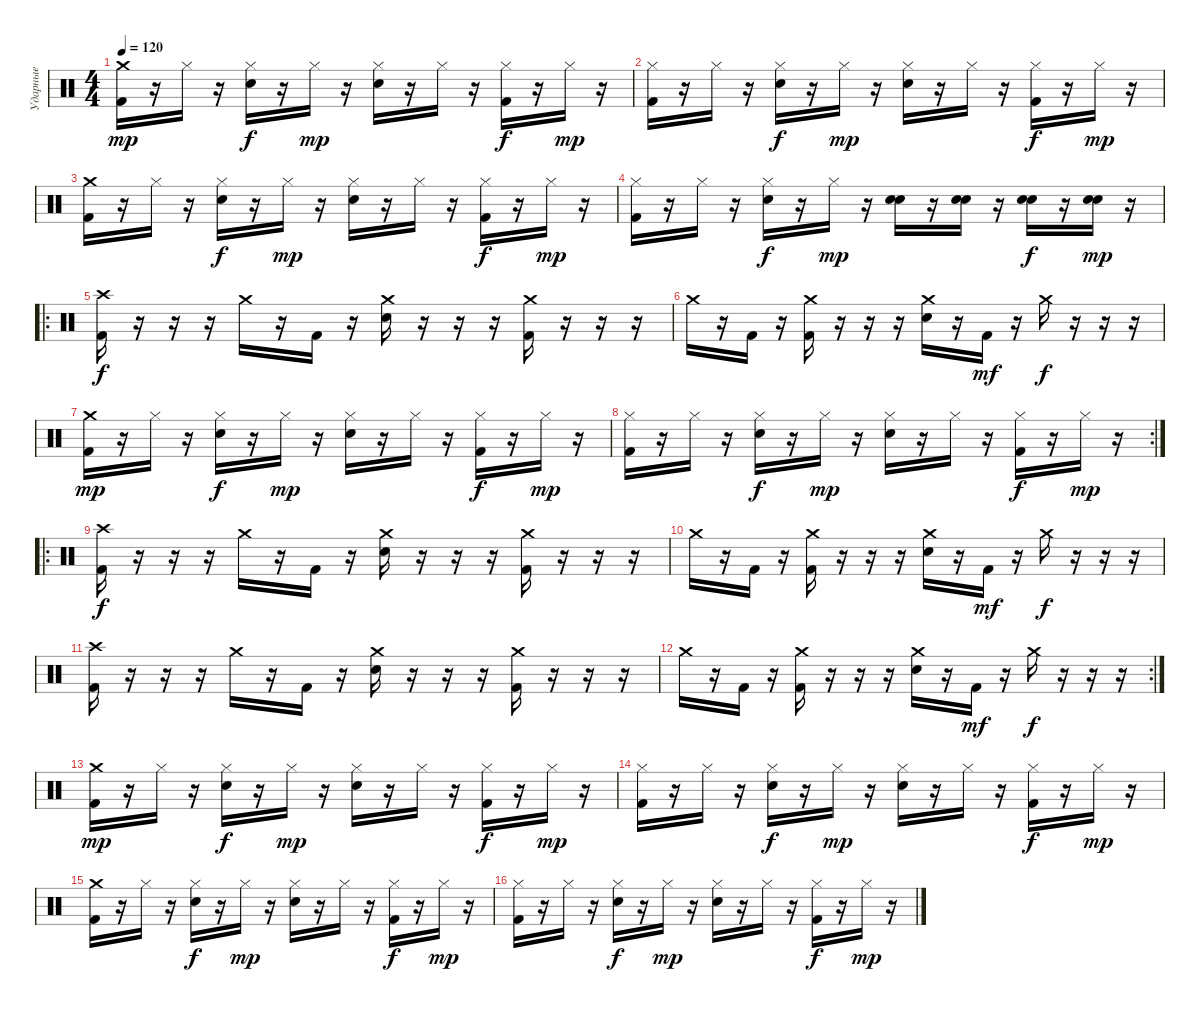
\track ("Ударные" "Ударные") {instrument percussion}
\staff {score}
\articulation defaults
\ts (4 4)
\tempo 120
\clef neutral
\ks c
("Crash medium (hit)" "Kick (hit) 2").16{dy mp} r.16 "Hi-Hat (closed)".16 r.16 ("Hi-Hat (closed)" "Electric Snare (hit)").16{dy f} r.16 "Hi-Hat (closed)".16{dy mp} r.16 ("Hi-Hat (closed)" "Electric Snare (hit)").16 r.16 "Hi-Hat (closed)".16 r.16 ("Hi-Hat (closed)" "Kick (hit) 2").16{dy f} r.16 "Hi-Hat (closed)".16{dy mp} r.16 |
("Hi-Hat (closed)" "Kick (hit) 2").16 r.16 "Hi-Hat (closed)".16 r.16 ("Hi-Hat (closed)" "Electric Snare (hit)").16{dy f} r.16 "Hi-Hat (closed)".16{dy mp} r.16 ("Hi-Hat (closed)" "Electric Snare (hit)").16 r.16 "Hi-Hat (closed)".16 r.16 ("Hi-Hat (closed)" "Kick (hit) 2").16{dy f} r.16 "Hi-Hat (closed)".16{dy mp} r.16 |
("Crash medium (hit)" "Kick (hit) 2").16 r.16 "Hi-Hat (closed)".16 r.16 ("Hi-Hat (closed)" "Electric Snare (hit)").16{dy f} r.16 "Hi-Hat (closed)".16{dy mp} r.16 ("Hi-Hat (closed)" "Electric Snare (hit)").16 r.16 "Hi-Hat (closed)".16 r.16 ("Hi-Hat (closed)" "Kick (hit) 2").16{dy f} r.16 "Hi-Hat (closed)".16{dy mp} r.16 |
("Hi-Hat (closed)" "Kick (hit) 2").16 r.16 "Hi-Hat (closed)".16 r.16 ("Hi-Hat (closed)" "Electric Snare (hit)").16{dy f} r.16 "Hi-Hat (closed)".16{dy mp} r.16 ("Snare (hit) 2" "Electric Snare (hit)").16 r.16 ("Snare (hit) 2" "Electric Snare (hit)").16 r.16 ("Snare (hit) 2" "Electric Snare (hit)").16{dy f} r.16 ("Snare (hit) 2" "Electric Snare (hit)").16{dy mp} r.16 |
\ro
("Crash high (hit)" "Kick (hit) 2").16{dy f} r.16 r.16 r.16 "Crash medium (hit)".16 r.16 "Kick (hit) 2".16 r.16 ("Crash medium (hit)" "Electric Snare (hit)").16 r.16 r.16 r.16 ("Crash medium (hit)" "Kick (hit) 2").16 r.16 r.16 r.16 |
"Crash medium (hit)".16 r.16 "Kick (hit) 2".16 r.16 ("Crash medium (hit)" "Kick (hit) 2").16 r.16 r.16 r.16 ("Crash medium (hit)" "Electric Snare (hit)").16 r.16 "Kick (hit) 2".16{dy mf} r.16 "Crash medium (hit)".16{dy f} r.16 r.16 r.16 |
("Crash medium (hit)" "Kick (hit) 2").16{dy mp} r.16 "Hi-Hat (closed)".16 r.16 ("Hi-Hat (closed)" "Electric Snare (hit)").16{dy f} r.16 "Hi-Hat (closed)".16{dy mp} r.16 ("Hi-Hat (closed)" "Electric Snare (hit)").16 r.16 "Hi-Hat (closed)".16 r.16 ("Hi-Hat (closed)" "Kick (hit) 2").16{dy f} r.16 "Hi-Hat (closed)".16{dy mp} r.16 |
\rc 2
("Hi-Hat (closed)" "Kick (hit) 2").16 r.16 "Hi-Hat (closed)".16 r.16 ("Hi-Hat (closed)" "Electric Snare (hit)").16{dy f} r.16 "Hi-Hat (closed)".16{dy mp} r.16 ("Hi-Hat (closed)" "Electric Snare (hit)").16 r.16 "Hi-Hat (closed)".16 r.16 ("Hi-Hat (closed)" "Kick (hit) 2").16{dy f} r.16 "Hi-Hat (closed)".16{dy mp} r.16 |
\ro
("Crash high (hit)" "Kick (hit) 2").16{dy f} r.16 r.16 r.16 "Crash medium (hit)".16 r.16 "Kick (hit) 2".16 r.16 ("Crash medium (hit)" "Electric Snare (hit)").16 r.16 r.16 r.16 ("Crash medium (hit)" "Kick (hit) 2").16 r.16 r.16 r.16 |
"Crash medium (hit)".16 r.16 "Kick (hit) 2".16 r.16 ("Crash medium (hit)" "Kick (hit) 2").16 r.16 r.16 r.16 ("Crash medium (hit)" "Electric Snare (hit)").16 r.16 "Kick (hit) 2".16{dy mf} r.16 "Crash medium (hit)".16{dy f} r.16 r.16 r.16 |
("Crash high (hit)" "Kick (hit) 2").16 r.16 r.16 r.16 "Crash medium (hit)".16 r.16 "Kick (hit) 2".16 r.16 ("Crash medium (hit)" "Electric Snare (hit)").16 r.16 r.16 r.16 ("Crash medium (hit)" "Kick (hit) 2").16 r.16 r.16 r.16 |
\rc 2 "Crash medium (hit)".16
r.16 "Kick (hit) 2".16 r.16 ("Crash medium (hit)" "Kick (hit) 2").16 r.16 r.16 r.16 ("Crash medium (hit)" "Electric Snare (hit)").16 r.16 "Kick (hit) 2".16{dy mf} r.16 "Crash medium (hit)".16{dy f} r.16 r.16 r.16 |
("Crash medium (hit)" "Kick (hit) 2").16{dy mp} r.16 "Hi-Hat (closed)".16 r.16 ("Hi-Hat (closed)" "Electric Snare (hit)").16{dy f} r.16 "Hi-Hat (closed)".16{dy mp} r.16 ("Hi-Hat (closed)" "Electric Snare (hit)").16 r.16 "Hi-Hat (closed)".16 r.16 ("Hi-Hat (closed)" "Kick (hit) 2").16{dy f} r.16 "Hi-Hat (closed)".16{dy mp} r.16 |
("Hi-Hat (closed)" "Kick (hit) 2").16 r.16 "Hi-Hat (closed)".16 r.16 ("Hi-Hat (closed)" "Electric Snare (hit)").16{dy f} r.16 "Hi-Hat (closed)".16{dy mp} r.16 ("Hi-Hat (closed)" "Electric Snare (hit)").16 r.16 "Hi-Hat (closed)".16 r.16 ("Hi-Hat (closed)" "Kick (hit) 2").16{dy f} r.16 "Hi-Hat (closed)".16{dy mp} r.16 |
("Crash medium (hit)" "Kick (hit) 2").16 r.16 "Hi-Hat (closed)".16 r.16 ("Hi-Hat (closed)" "Electric Snare (hit)").16{dy f} r.16 "Hi-Hat (closed)".16{dy mp} r.16 ("Hi-Hat (closed)" "Electric Snare (hit)").16 r.16 "Hi-Hat (closed)".16 r.16 ("Hi-Hat (closed)" "Kick (hit) 2").16{dy f} r.16 "Hi-Hat (closed)".16{dy mp} r.16 |
("Hi-Hat (closed)" "Kick (hit) 2").16 r.16 "Hi-Hat (closed)".16 r.16 ("Hi-Hat (closed)" "Electric Snare (hit)").16{dy f} r.16 "Hi-Hat (closed)".16{dy mp} r.16 ("Hi-Hat (closed)" "Electric Snare (hit)").16 r.16 "Hi-Hat (closed)".16 r.16 ("Hi-Hat (closed)" "Kick (hit) 2").16{dy f} r.16 "Hi-Hat (closed)".16{dy mp} r.16
